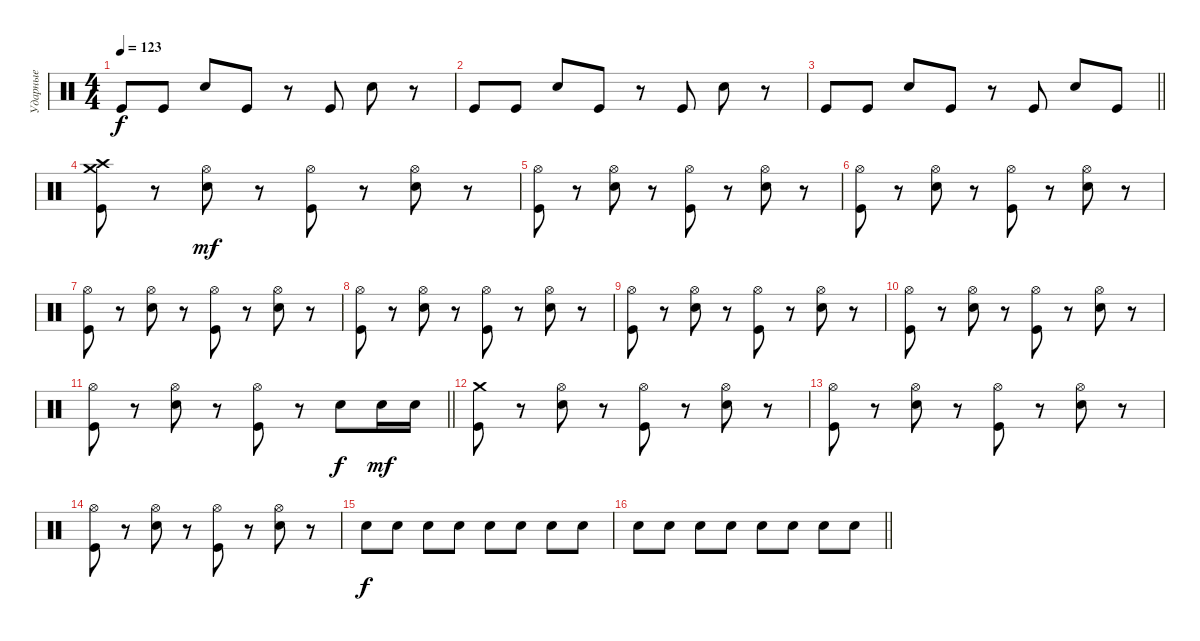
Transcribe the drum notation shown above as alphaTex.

\track ("Ударные" "Ударные") {instrument percussion}
\staff {score}
\articulation defaults
\ts (4 4)
\tempo 123
\clef neutral
\ks c "Kick (hit)".8{dy f} "Kick (hit)".8 "Electric Snare (hit)".8 "Kick (hit)".8
r.8 "Kick (hit)".8 "Electric Snare (hit)".8 r.8 |
"Kick (hit)".8 "Kick (hit)".8 "Electric Snare (hit)".8 "Kick (hit)".8 r.8 "Kick (hit)".8 "Electric Snare (hit)".8 r.8 |
\barLineRight lightlight "Kick (hit)".8 "Kick (hit)".8 "Electric Snare (hit)".8 "Kick (hit)".8
r.8 "Kick (hit)".8 "Electric Snare (hit)".8 "Kick (hit)".8 |
("Crash high (hit)" "Kick (hit)" "Crash medium (hit)").8 r.8 ("Hi-Hat (open)" "Electric Snare (hit)").8{dy mf} r.8 ("Hi-Hat (open)" "Kick (hit)").8 r.8 ("Hi-Hat (open)" "Electric Snare (hit)").8 r.8 |
("Hi-Hat (open)" "Kick (hit)").8 r.8 ("Hi-Hat (open)" "Electric Snare (hit)").8 r.8 ("Hi-Hat (open)" "Kick (hit)").8 r.8 ("Hi-Hat (open)" "Electric Snare (hit)").8 r.8 |
("Hi-Hat (open)" "Kick (hit)").8 r.8 ("Hi-Hat (open)" "Electric Snare (hit)").8 r.8 ("Hi-Hat (open)" "Kick (hit)").8 r.8 ("Hi-Hat (open)" "Electric Snare (hit)").8 r.8 |
("Hi-Hat (open)" "Kick (hit)").8 r.8 ("Hi-Hat (open)" "Electric Snare (hit)").8 r.8 ("Hi-Hat (open)" "Kick (hit)").8 r.8 ("Hi-Hat (open)" "Electric Snare (hit)").8 r.8 |
("Hi-Hat (open)" "Kick (hit)").8 r.8 ("Hi-Hat (open)" "Electric Snare (hit)").8 r.8 ("Hi-Hat (open)" "Kick (hit)").8 r.8 ("Hi-Hat (open)" "Electric Snare (hit)").8 r.8 |
("Hi-Hat (open)" "Kick (hit)").8 r.8 ("Hi-Hat (open)" "Electric Snare (hit)").8 r.8 ("Hi-Hat (open)" "Kick (hit)").8 r.8 ("Hi-Hat (open)" "Electric Snare (hit)").8 r.8 |
("Hi-Hat (open)" "Kick (hit)").8 r.8 ("Hi-Hat (open)" "Electric Snare (hit)").8 r.8 ("Hi-Hat (open)" "Kick (hit)").8 r.8 ("Hi-Hat (open)" "Electric Snare (hit)").8 r.8 |
\barLineRight lightlight
("Hi-Hat (open)" "Kick (hit)").8 r.8 ("Hi-Hat (open)" "Electric Snare (hit)").8 r.8 ("Hi-Hat (open)" "Kick (hit)").8 r.8 "Electric Snare (hit)".8{dy f} "Electric Snare (hit)".16{dy mf} "Electric Snare (hit)".16 |
("Crash medium (hit)" "Kick (hit)").8 r.8 ("Hi-Hat (open)" "Electric Snare (hit)").8 r.8 ("Hi-Hat (open)" "Kick (hit)").8 r.8 ("Hi-Hat (open)" "Electric Snare (hit)").8 r.8 |
("Hi-Hat (open)" "Kick (hit)").8 r.8 ("Hi-Hat (open)" "Electric Snare (hit)").8 r.8 ("Hi-Hat (open)" "Kick (hit)").8 r.8 ("Hi-Hat (open)" "Electric Snare (hit)").8 r.8 |
("Hi-Hat (open)" "Kick (hit)").8 r.8 ("Hi-Hat (open)" "Electric Snare (hit)").8 r.8 ("Hi-Hat (open)" "Kick (hit)").8 r.8 ("Hi-Hat (open)" "Electric Snare (hit)").8 r.8 |
"Electric Snare (hit)".8{dy f} "Electric Snare (hit)".8 "Electric Snare (hit)".8 "Electric Snare (hit)".8 "Electric Snare (hit)".8 "Electric Snare (hit)".8 "Electric Snare (hit)".8 "Electric Snare (hit)".8 |
\barLineRight lightlight "Electric Snare (hit)".8 "Electric Snare (hit)".8 "Electric Snare (hit)".8 "Electric Snare (hit)".8 "Electric Snare (hit)".8 "Electric Snare (hit)".8 "Electric Snare (hit)".8 "Electric Snare (hit)".8
